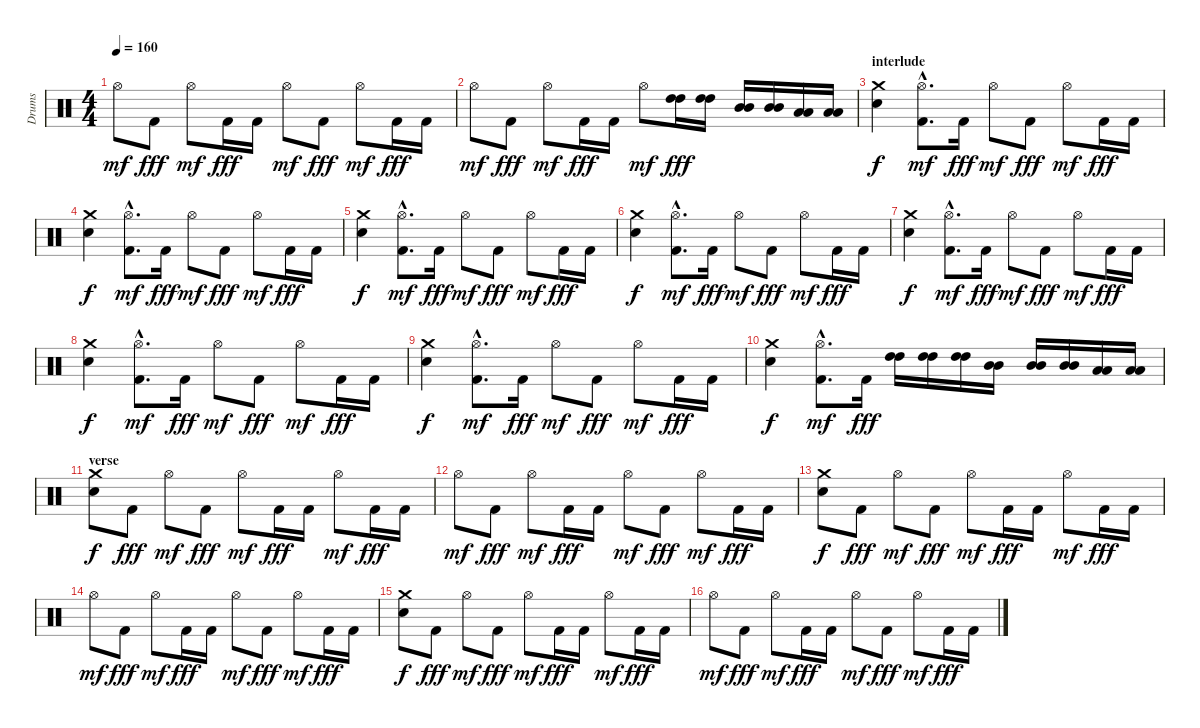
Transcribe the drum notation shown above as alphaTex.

\track ("Drums" "Drums") {instrument percussion}
\staff {score}
\articulation defaults
\ts (4 4)
\tempo 160
\clef neutral
\ks c "Hi-Hat (open)".8{dy mf} "Kick (hit) 2".8{dy fff} "Hi-Hat (open)".8{dy mf} "Kick (hit) 2".16{dy fff} "Kick (hit) 2".16 "Hi-Hat (open)".8{dy mf} "Kick (hit) 2".8{dy fff} "Hi-Hat (open)".8{dy mf} "Kick (hit) 2".16{dy fff} "Kick (hit) 2".16
|
"Hi-Hat (open)".8{dy mf} "Kick (hit) 2".8{dy fff} "Hi-Hat (open)".8{dy mf} "Kick (hit) 2".16{dy fff} "Kick (hit) 2".16 "Hi-Hat (open)".8{dy mf} ("High Tom (hit)" "High Tom (hit)").16{dy fff} ("High Tom (hit)" "High Tom (hit)").16 ("Mid Tom (hit)" "Mid Tom (hit)").16 ("Mid Tom (hit)" "Mid Tom (hit)").16 ("Low Tom (hit)" "Low Tom (hit)").16 ("Low Tom (hit)" "Low Tom (hit)").16 |
\section ("" "interlude")
("Crash medium (hit)" "Electric Snare (hit)").4{dy f} ("Kick (hit) 2"{hac} "Hi-Hat (open)"{hac}).8{d dy mf} "Kick (hit) 2".16{dy fff} "Hi-Hat (open)".8{dy mf} "Kick (hit) 2".8{dy fff} "Hi-Hat (open)".8{dy mf} "Kick (hit) 2".16{dy fff} "Kick (hit) 2".16 |
("Crash medium (hit)" "Electric Snare (hit)").4{dy f} ("Kick (hit) 2"{hac} "Hi-Hat (open)"{hac}).8{d dy mf} "Kick (hit) 2".16{dy fff} "Hi-Hat (open)".8{dy mf} "Kick (hit) 2".8{dy fff} "Hi-Hat (open)".8{dy mf} "Kick (hit) 2".16{dy fff} "Kick (hit) 2".16 |
("Crash medium (hit)" "Electric Snare (hit)").4{dy f} ("Kick (hit) 2"{hac} "Hi-Hat (open)"{hac}).8{d dy mf} "Kick (hit) 2".16{dy fff} "Hi-Hat (open)".8{dy mf} "Kick (hit) 2".8{dy fff} "Hi-Hat (open)".8{dy mf} "Kick (hit) 2".16{dy fff} "Kick (hit) 2".16 |
("Crash medium (hit)" "Electric Snare (hit)").4{dy f} ("Kick (hit) 2"{hac} "Hi-Hat (open)"{hac}).8{d dy mf} "Kick (hit) 2".16{dy fff} "Hi-Hat (open)".8{dy mf} "Kick (hit) 2".8{dy fff} "Hi-Hat (open)".8{dy mf} "Kick (hit) 2".16{dy fff} "Kick (hit) 2".16 |
("Crash medium (hit)" "Electric Snare (hit)").4{dy f} ("Kick (hit) 2"{hac} "Hi-Hat (open)"{hac}).8{d dy mf} "Kick (hit) 2".16{dy fff} "Hi-Hat (open)".8{dy mf} "Kick (hit) 2".8{dy fff} "Hi-Hat (open)".8{dy mf} "Kick (hit) 2".16{dy fff} "Kick (hit) 2".16 |
("Crash medium (hit)" "Electric Snare (hit)").4{dy f} ("Kick (hit) 2"{hac} "Hi-Hat (open)"{hac}).8{d dy mf} "Kick (hit) 2".16{dy fff} "Hi-Hat (open)".8{dy mf} "Kick (hit) 2".8{dy fff} "Hi-Hat (open)".8{dy mf} "Kick (hit) 2".16{dy fff} "Kick (hit) 2".16 |
("Crash medium (hit)" "Electric Snare (hit)").4{dy f} ("Kick (hit) 2"{hac} "Hi-Hat (open)"{hac}).8{d dy mf} "Kick (hit) 2".16{dy fff} "Hi-Hat (open)".8{dy mf} "Kick (hit) 2".8{dy fff} "Hi-Hat (open)".8{dy mf} "Kick (hit) 2".16{dy fff} "Kick (hit) 2".16 |
("Crash medium (hit)" "Electric Snare (hit)").4{dy f} ("Kick (hit) 2"{hac} "Hi-Hat (open)"{hac}).8{d dy mf} "Kick (hit) 2".16{dy fff} ("High Tom (hit)" "High Tom (hit)").16 ("High Tom (hit)" "High Tom (hit)").16 ("High Tom (hit)" "High Tom (hit)").16 ("Mid Tom (hit)" "Mid Tom (hit)").16 ("Mid Tom (hit)" "Mid Tom (hit)").16 ("Mid Tom (hit)" "Mid Tom (hit)").16 ("Low Tom (hit)" "Low Tom (hit)").16 ("Low Tom (hit)" "Low Tom (hit)").16 |
\section ("" "verse")
("Crash medium (hit)" "Electric Snare (hit)").8{dy f} "Kick (hit) 2".8{dy fff} "Hi-Hat (open)".8{dy mf} "Kick (hit) 2".8{dy fff} "Hi-Hat (open)".8{dy mf} "Kick (hit) 2".16{dy fff} "Kick (hit) 2".16 "Hi-Hat (open)".8{dy mf} "Kick (hit) 2".16{dy fff} "Kick (hit) 2".16 |
"Hi-Hat (open)".8{dy mf} "Kick (hit) 2".8{dy fff} "Hi-Hat (open)".8{dy mf} "Kick (hit) 2".16{dy fff} "Kick (hit) 2".16 "Hi-Hat (open)".8{dy mf} "Kick (hit) 2".8{dy fff} "Hi-Hat (open)".8{dy mf} "Kick (hit) 2".16{dy fff} "Kick (hit) 2".16 |
("Crash medium (hit)" "Electric Snare (hit)").8{dy f} "Kick (hit) 2".8{dy fff} "Hi-Hat (open)".8{dy mf} "Kick (hit) 2".8{dy fff} "Hi-Hat (open)".8{dy mf} "Kick (hit) 2".16{dy fff} "Kick (hit) 2".16 "Hi-Hat (open)".8{dy mf} "Kick (hit) 2".16{dy fff} "Kick (hit) 2".16 |
"Hi-Hat (open)".8{dy mf} "Kick (hit) 2".8{dy fff} "Hi-Hat (open)".8{dy mf} "Kick (hit) 2".16{dy fff} "Kick (hit) 2".16 "Hi-Hat (open)".8{dy mf} "Kick (hit) 2".8{dy fff} "Hi-Hat (open)".8{dy mf} "Kick (hit) 2".16{dy fff} "Kick (hit) 2".16 |
("Crash medium (hit)" "Electric Snare (hit)").8{dy f} "Kick (hit) 2".8{dy fff} "Hi-Hat (open)".8{dy mf} "Kick (hit) 2".8{dy fff} "Hi-Hat (open)".8{dy mf} "Kick (hit) 2".16{dy fff} "Kick (hit) 2".16 "Hi-Hat (open)".8{dy mf} "Kick (hit) 2".16{dy fff} "Kick (hit) 2".16 |
"Hi-Hat (open)".8{dy mf} "Kick (hit) 2".8{dy fff} "Hi-Hat (open)".8{dy mf} "Kick (hit) 2".16{dy fff} "Kick (hit) 2".16 "Hi-Hat (open)".8{dy mf} "Kick (hit) 2".8{dy fff} "Hi-Hat (open)".8{dy mf} "Kick (hit) 2".16{dy fff} "Kick (hit) 2".16
